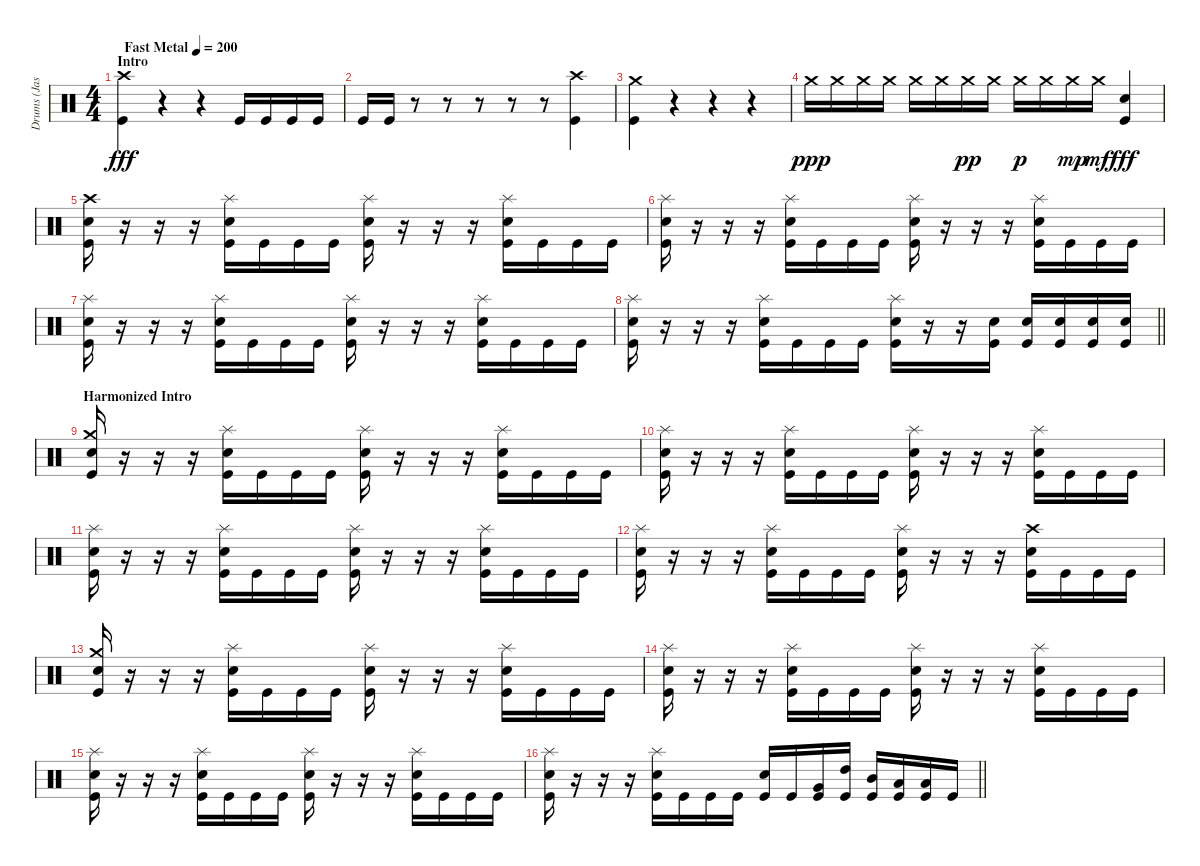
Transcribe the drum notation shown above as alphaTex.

\track ("Drums (Jason Costa)" "Drums (Jas") {instrument percussion}
\staff {score}
\articulation defaults
\ts (4 4)
\section ("" "Intro")
\tempo (200 "Fast Metal")
\clef neutral
\ks c
("Crash high (hit)" "Kick (hit)").4{dy fff} r.4 r.4 "Kick (hit)".16 "Kick (hit)".16 "Kick (hit)".16 "Kick (hit)".16 |
"Kick (hit)".16 "Kick (hit)".16 r.8 r.8 r.8 r.8 r.8 ("Crash high (hit)" "Kick (hit)").4 |
("Crash medium (hit)" "Kick (hit)").4 r.4 r.4 r.4 |
"Crash medium (hit)".16{dy ppp} "Crash medium (hit)".16 "Crash medium (hit)".16 "Crash medium (hit)".16 "Crash medium (hit)".16 "Crash medium (hit)".16 "Crash medium (hit)".16{dy pp} "Crash medium (hit)".16 "Crash medium (hit)".16{dy p} "Crash medium (hit)".16 "Crash medium (hit)".16{dy mp} "Crash medium (hit)".16{dy mf} ("Electric Snare (hit)" "Kick (hit)").4{dy fff} |
("Crash high (hit)" "Electric Snare (hit)" "Kick (hit)").16 r.16 r.16 r.16 ("Splash (hit)" "Electric Snare (hit)" "Kick (hit)").16 "Kick (hit)".16 "Kick (hit)".16 "Kick (hit)".16 ("Splash (hit)" "Electric Snare (hit)" "Kick (hit)").16 r.16 r.16 r.16 ("Splash (hit)" "Electric Snare (hit)" "Kick (hit)").16 "Kick (hit)".16 "Kick (hit)".16 "Kick (hit)".16 |
("Splash (hit)" "Electric Snare (hit)" "Kick (hit)").16 r.16 r.16 r.16 ("Splash (hit)" "Electric Snare (hit)" "Kick (hit)").16 "Kick (hit)".16 "Kick (hit)".16 "Kick (hit)".16 ("Splash (hit)" "Electric Snare (hit)" "Kick (hit)").16 r.16 r.16 r.16 ("Splash (hit)" "Electric Snare (hit)" "Kick (hit)").16 "Kick (hit)".16 "Kick (hit)".16 "Kick (hit)".16 |
("Splash (hit)" "Electric Snare (hit)" "Kick (hit)").16 r.16 r.16 r.16 ("Splash (hit)" "Electric Snare (hit)" "Kick (hit)").16 "Kick (hit)".16 "Kick (hit)".16 "Kick (hit)".16 ("Splash (hit)" "Electric Snare (hit)" "Kick (hit)").16 r.16 r.16 r.16 ("Splash (hit)" "Electric Snare (hit)" "Kick (hit)").16 "Kick (hit)".16 "Kick (hit)".16 "Kick (hit)".16 |
\barLineRight lightlight
("Splash (hit)" "Electric Snare (hit)" "Kick (hit)").16 r.16 r.16 r.16 ("Splash (hit)" "Electric Snare (hit)" "Kick (hit)").16 "Kick (hit)".16 "Kick (hit)".16 "Kick (hit)".16 ("Splash (hit)" "Electric Snare (hit)" "Kick (hit)").16 r.16 r.16 ("Electric Snare (hit)" "Kick (hit)").16 ("Electric Snare (hit)" "Kick (hit)").16 ("Electric Snare (hit)" "Kick (hit)").16 ("Electric Snare (hit)" "Kick (hit)").16 ("Electric Snare (hit)" "Kick (hit)").16 |
\section ("" "Harmonized Intro")
("Crash medium (hit)" "Electric Snare (hit)" "Kick (hit)").16 r.16 r.16 r.16 ("Splash (hit)" "Electric Snare (hit)" "Kick (hit)").16 "Kick (hit)".16 "Kick (hit)".16 "Kick (hit)".16 ("Splash (hit)" "Electric Snare (hit)" "Kick (hit)").16 r.16 r.16 r.16 ("Splash (hit)" "Electric Snare (hit)" "Kick (hit)").16 "Kick (hit)".16 "Kick (hit)".16 "Kick (hit)".16 |
("Splash (hit)" "Electric Snare (hit)" "Kick (hit)").16 r.16 r.16 r.16 ("Splash (hit)" "Electric Snare (hit)" "Kick (hit)").16 "Kick (hit)".16 "Kick (hit)".16 "Kick (hit)".16 ("Splash (hit)" "Electric Snare (hit)" "Kick (hit)").16 r.16 r.16 r.16 ("Splash (hit)" "Electric Snare (hit)" "Kick (hit)").16 "Kick (hit)".16 "Kick (hit)".16 "Kick (hit)".16 |
("Splash (hit)" "Electric Snare (hit)" "Kick (hit)").16 r.16 r.16 r.16 ("Splash (hit)" "Electric Snare (hit)" "Kick (hit)").16 "Kick (hit)".16 "Kick (hit)".16 "Kick (hit)".16 ("Splash (hit)" "Electric Snare (hit)" "Kick (hit)").16 r.16 r.16 r.16 ("Splash (hit)" "Electric Snare (hit)" "Kick (hit)").16 "Kick (hit)".16 "Kick (hit)".16 "Kick (hit)".16 |
("Splash (hit)" "Electric Snare (hit)" "Kick (hit)").16 r.16 r.16 r.16 ("Splash (hit)" "Electric Snare (hit)" "Kick (hit)").16 "Kick (hit)".16 "Kick (hit)".16 "Kick (hit)".16 ("Splash (hit)" "Electric Snare (hit)" "Kick (hit)").16 r.16 r.16 r.16 ("Crash high (hit)" "Electric Snare (hit)" "Kick (hit)").16 "Kick (hit)".16 "Kick (hit)".16 "Kick (hit)".16 |
("Crash medium (hit)" "Electric Snare (hit)" "Kick (hit)").16 r.16 r.16 r.16 ("Splash (hit)" "Electric Snare (hit)" "Kick (hit)").16 "Kick (hit)".16 "Kick (hit)".16 "Kick (hit)".16 ("Splash (hit)" "Electric Snare (hit)" "Kick (hit)").16 r.16 r.16 r.16 ("Splash (hit)" "Electric Snare (hit)" "Kick (hit)").16 "Kick (hit)".16 "Kick (hit)".16 "Kick (hit)".16 |
("Splash (hit)" "Electric Snare (hit)" "Kick (hit)").16 r.16 r.16 r.16 ("Splash (hit)" "Electric Snare (hit)" "Kick (hit)").16 "Kick (hit)".16 "Kick (hit)".16 "Kick (hit)".16 ("Splash (hit)" "Electric Snare (hit)" "Kick (hit)").16 r.16 r.16 r.16 ("Splash (hit)" "Electric Snare (hit)" "Kick (hit)").16 "Kick (hit)".16 "Kick (hit)".16 "Kick (hit)".16 |
("Splash (hit)" "Electric Snare (hit)" "Kick (hit)").16 r.16 r.16 r.16 ("Splash (hit)" "Electric Snare (hit)" "Kick (hit)").16 "Kick (hit)".16 "Kick (hit)".16 "Kick (hit)".16 ("Splash (hit)" "Electric Snare (hit)" "Kick (hit)").16 r.16 r.16 r.16 ("Splash (hit)" "Electric Snare (hit)" "Kick (hit)").16 "Kick (hit)".16 "Kick (hit)".16 "Kick (hit)".16 |
\barLineRight lightlight
("Splash (hit)" "Electric Snare (hit)" "Kick (hit)").16 r.16 r.16 r.16 ("Splash (hit)" "Electric Snare (hit)" "Kick (hit)").16 "Kick (hit)".16 "Kick (hit)".16 "Kick (hit)".16 ("Electric Snare (hit)" "Kick (hit)").16 "Kick (hit)".16 ("Very Low Tom (hit)" "Kick (hit)").16 ("High Tom (hit)" "Kick (hit)").16 ("Mid Tom (hit)" "Kick (hit)").16 ("Low Floor Tom (hit)" "Kick (hit)").16 ("Low Tom (hit)" "Kick (hit)").16 "Kick (hit)".16
